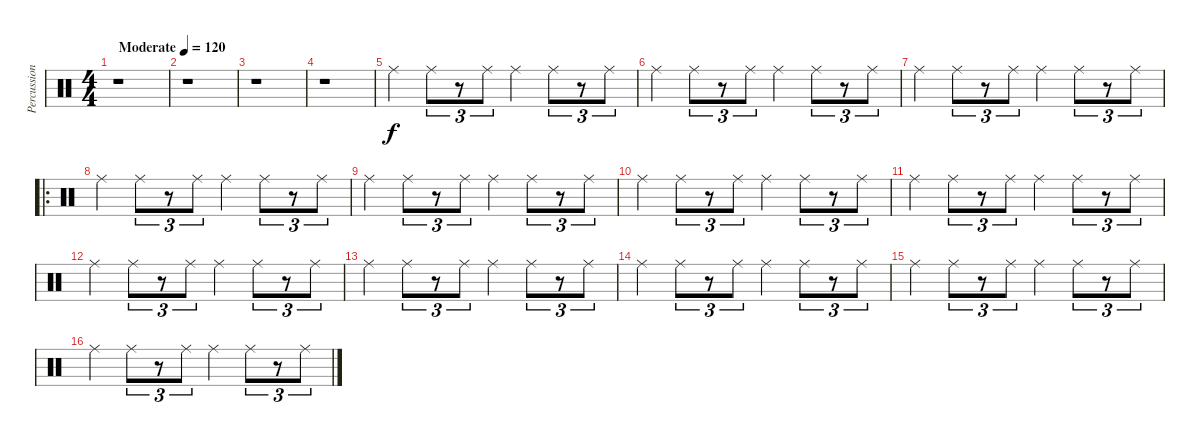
\track ("Percussions cymbals" "Percussion") {instrument percussion}
\staff {score}
\articulation defaults
\ts (4 4)
\tempo (120 "Moderate")
\clef neutral
\ks c
r.1{dy f} |
r.1 |
r.1 |
r.1 |
"Ride (middle)".4 "Ride (middle)".8{tu (3 2)} r.8{tu (3 2)} "Ride (middle)".8{tu (3 2)} "Ride (middle)".4 "Ride (middle)".8{tu (3 2)} r.8{tu (3 2)} "Ride (middle)".8{tu (3 2)} |
"Ride (middle)".4 "Ride (middle)".8{tu (3 2)} r.8{tu (3 2)} "Ride (middle)".8{tu (3 2)} "Ride (middle)".4 "Ride (middle)".8{tu (3 2)} r.8{tu (3 2)} "Ride (middle)".8{tu (3 2)} |
"Ride (middle)".4 "Ride (middle)".8{tu (3 2)} r.8{tu (3 2)} "Ride (middle)".8{tu (3 2)} "Ride (middle)".4 "Ride (middle)".8{tu (3 2)} r.8{tu (3 2)} "Ride (middle)".8{tu (3 2)} |
\ro "Ride (middle)".4 "Ride (middle)".8{tu (3 2)}
r.8{tu (3 2)} "Ride (middle)".8{tu (3 2)} "Ride (middle)".4 "Ride (middle)".8{tu (3 2)} r.8{tu (3 2)} "Ride (middle)".8{tu (3 2)} |
"Ride (middle)".4 "Ride (middle)".8{tu (3 2)} r.8{tu (3 2)} "Ride (middle)".8{tu (3 2)} "Ride (middle)".4 "Ride (middle)".8{tu (3 2)} r.8{tu (3 2)} "Ride (middle)".8{tu (3 2)} |
"Ride (middle)".4 "Ride (middle)".8{tu (3 2)} r.8{tu (3 2)} "Ride (middle)".8{tu (3 2)} "Ride (middle)".4 "Ride (middle)".8{tu (3 2)} r.8{tu (3 2)} "Ride (middle)".8{tu (3 2)} |
"Ride (middle)".4 "Ride (middle)".8{tu (3 2)} r.8{tu (3 2)} "Ride (middle)".8{tu (3 2)} "Ride (middle)".4 "Ride (middle)".8{tu (3 2)} r.8{tu (3 2)} "Ride (middle)".8{tu (3 2)} |
"Ride (middle)".4 "Ride (middle)".8{tu (3 2)} r.8{tu (3 2)} "Ride (middle)".8{tu (3 2)} "Ride (middle)".4 "Ride (middle)".8{tu (3 2)} r.8{tu (3 2)} "Ride (middle)".8{tu (3 2)} |
"Ride (middle)".4 "Ride (middle)".8{tu (3 2)} r.8{tu (3 2)} "Ride (middle)".8{tu (3 2)} "Ride (middle)".4 "Ride (middle)".8{tu (3 2)} r.8{tu (3 2)} "Ride (middle)".8{tu (3 2)} |
"Ride (middle)".4 "Ride (middle)".8{tu (3 2)} r.8{tu (3 2)} "Ride (middle)".8{tu (3 2)} "Ride (middle)".4 "Ride (middle)".8{tu (3 2)} r.8{tu (3 2)} "Ride (middle)".8{tu (3 2)} |
"Ride (middle)".4 "Ride (middle)".8{tu (3 2)} r.8{tu (3 2)} "Ride (middle)".8{tu (3 2)} "Ride (middle)".4 "Ride (middle)".8{tu (3 2)} r.8{tu (3 2)} "Ride (middle)".8{tu (3 2)} |
"Ride (middle)".4 "Ride (middle)".8{tu (3 2)} r.8{tu (3 2)} "Ride (middle)".8{tu (3 2)} "Ride (middle)".4 "Ride (middle)".8{tu (3 2)} r.8{tu (3 2)} "Ride (middle)".8{tu (3 2)}
